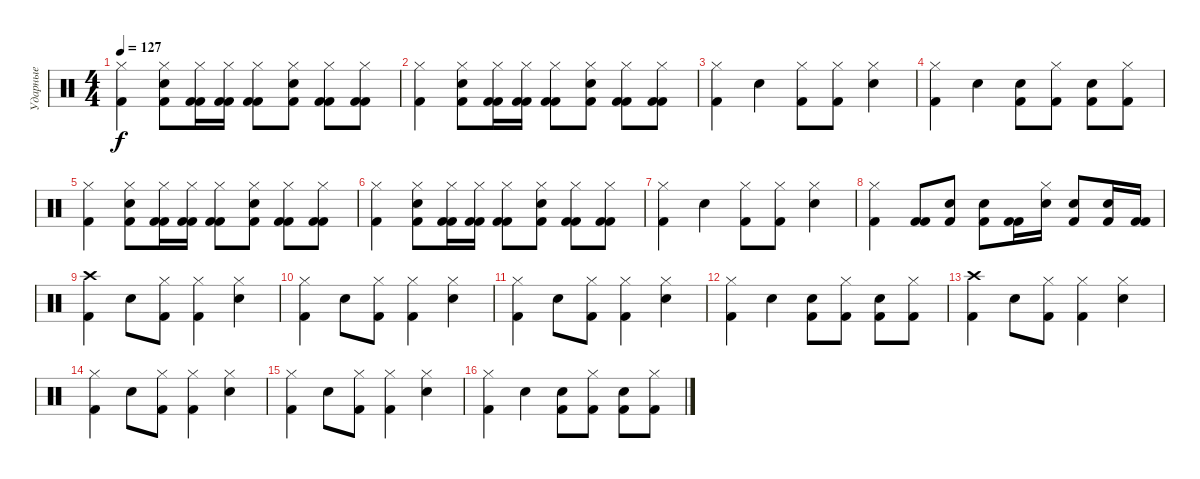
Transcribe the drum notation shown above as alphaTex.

\track ("Ударные" "Ударные") {instrument percussion}
\staff {score}
\articulation defaults
\ts (4 4)
\tempo 127
\clef neutral
\ks c
("Hi-Hat (closed)" "Kick (hit) 2").4{dy f} ("Hi-Hat (closed)" "Kick (hit) 2" "Electric Snare (hit)").8 ("Hi-Hat (closed)" "Kick (hit) 2" "Kick (hit) 2").16 ("Hi-Hat (closed)" "Kick (hit) 2" "Kick (hit) 2").16 ("Hi-Hat (closed)" "Kick (hit) 2" "Kick (hit) 2").8 ("Hi-Hat (closed)" "Kick (hit) 2" "Electric Snare (hit)").8 ("Hi-Hat (closed)" "Kick (hit) 2" "Kick (hit) 2").8 ("Hi-Hat (closed)" "Kick (hit) 2" "Kick (hit) 2").8 |
("Hi-Hat (closed)" "Kick (hit) 2").4 ("Hi-Hat (closed)" "Kick (hit) 2" "Electric Snare (hit)").8 ("Hi-Hat (closed)" "Kick (hit) 2" "Kick (hit) 2").16 ("Hi-Hat (closed)" "Kick (hit) 2" "Kick (hit) 2").16 ("Hi-Hat (closed)" "Kick (hit) 2" "Kick (hit) 2").8 ("Hi-Hat (closed)" "Kick (hit) 2" "Electric Snare (hit)").8 ("Hi-Hat (closed)" "Kick (hit) 2" "Kick (hit) 2").8 ("Hi-Hat (closed)" "Kick (hit) 2" "Kick (hit) 2").8 |
("Hi-Hat (closed)" "Kick (hit) 2").4 "Electric Snare (hit)".4 ("Hi-Hat (closed)" "Kick (hit) 2").8 ("Hi-Hat (closed)" "Kick (hit) 2").8 ("Hi-Hat (closed)" "Electric Snare (hit)").4 |
("Hi-Hat (closed)" "Kick (hit) 2").4 "Electric Snare (hit)".4 ("Kick (hit) 2" "Electric Snare (hit)").8 ("Hi-Hat (closed)" "Kick (hit) 2").8 ("Kick (hit) 2" "Electric Snare (hit)").8 ("Hi-Hat (closed)" "Kick (hit) 2").8 |
("Hi-Hat (closed)" "Kick (hit) 2").4 ("Hi-Hat (closed)" "Kick (hit) 2" "Electric Snare (hit)").8 ("Hi-Hat (closed)" "Kick (hit) 2" "Kick (hit) 2").16 ("Hi-Hat (closed)" "Kick (hit) 2" "Kick (hit) 2").16 ("Hi-Hat (closed)" "Kick (hit) 2" "Kick (hit) 2").8 ("Hi-Hat (closed)" "Kick (hit) 2" "Electric Snare (hit)").8 ("Hi-Hat (closed)" "Kick (hit) 2" "Kick (hit) 2").8 ("Hi-Hat (closed)" "Kick (hit) 2" "Kick (hit) 2").8 |
("Hi-Hat (closed)" "Kick (hit) 2").4 ("Hi-Hat (closed)" "Kick (hit) 2" "Electric Snare (hit)").8 ("Hi-Hat (closed)" "Kick (hit) 2" "Kick (hit) 2").16 ("Hi-Hat (closed)" "Kick (hit) 2" "Kick (hit) 2").16 ("Hi-Hat (closed)" "Kick (hit) 2" "Kick (hit) 2").8 ("Hi-Hat (closed)" "Kick (hit) 2" "Electric Snare (hit)").8 ("Hi-Hat (closed)" "Kick (hit) 2" "Kick (hit) 2").8 ("Hi-Hat (closed)" "Kick (hit) 2" "Kick (hit) 2").8 |
("Hi-Hat (closed)" "Kick (hit) 2").4 "Electric Snare (hit)".4 ("Hi-Hat (closed)" "Kick (hit) 2").8 ("Hi-Hat (closed)" "Kick (hit) 2").8 ("Hi-Hat (closed)" "Electric Snare (hit)").4 |
("Hi-Hat (closed)" "Kick (hit) 2").4 ("Kick (hit) 2" "Kick (hit) 2").8 ("Kick (hit) 2" "Electric Snare (hit)").8 ("Kick (hit) 2" "Electric Snare (hit)").8 ("Kick (hit) 2" "Kick (hit) 2").16 ("Hi-Hat (closed)" "Electric Snare (hit)").16 ("Kick (hit) 2" "Electric Snare (hit)").8 ("Kick (hit) 2" "Electric Snare (hit)").16 ("Kick (hit) 2" "Kick (hit) 2").16 |
("Crash high (hit)" "Kick (hit) 2").4 "Electric Snare (hit)".8 ("Hi-Hat (closed)" "Kick (hit) 2").8 ("Hi-Hat (closed)" "Kick (hit) 2").4 ("Hi-Hat (closed)" "Electric Snare (hit)").4 |
("Hi-Hat (closed)" "Kick (hit) 2").4 "Electric Snare (hit)".8 ("Hi-Hat (closed)" "Kick (hit) 2").8 ("Hi-Hat (closed)" "Kick (hit) 2").4 ("Hi-Hat (closed)" "Electric Snare (hit)").4 |
("Hi-Hat (closed)" "Kick (hit) 2").4 "Electric Snare (hit)".8 ("Hi-Hat (closed)" "Kick (hit) 2").8 ("Hi-Hat (closed)" "Kick (hit) 2").4 ("Hi-Hat (closed)" "Electric Snare (hit)").4 |
("Hi-Hat (closed)" "Kick (hit) 2").4 "Electric Snare (hit)".4 ("Kick (hit) 2" "Electric Snare (hit)").8 ("Hi-Hat (closed)" "Kick (hit) 2").8 ("Kick (hit) 2" "Electric Snare (hit)").8 ("Hi-Hat (closed)" "Kick (hit) 2").8 |
("Crash high (hit)" "Kick (hit) 2").4 "Electric Snare (hit)".8 ("Hi-Hat (closed)" "Kick (hit) 2").8 ("Hi-Hat (closed)" "Kick (hit) 2").4 ("Hi-Hat (closed)" "Electric Snare (hit)").4 |
("Hi-Hat (closed)" "Kick (hit) 2").4 "Electric Snare (hit)".8 ("Hi-Hat (closed)" "Kick (hit) 2").8 ("Hi-Hat (closed)" "Kick (hit) 2").4 ("Hi-Hat (closed)" "Electric Snare (hit)").4 |
("Hi-Hat (closed)" "Kick (hit) 2").4 "Electric Snare (hit)".8 ("Hi-Hat (closed)" "Kick (hit) 2").8 ("Hi-Hat (closed)" "Kick (hit) 2").4 ("Hi-Hat (closed)" "Electric Snare (hit)").4 |
("Hi-Hat (closed)" "Kick (hit) 2").4 "Electric Snare (hit)".4 ("Kick (hit) 2" "Electric Snare (hit)").8 ("Hi-Hat (closed)" "Kick (hit) 2").8 ("Kick (hit) 2" "Electric Snare (hit)").8 ("Hi-Hat (closed)" "Kick (hit) 2").8
